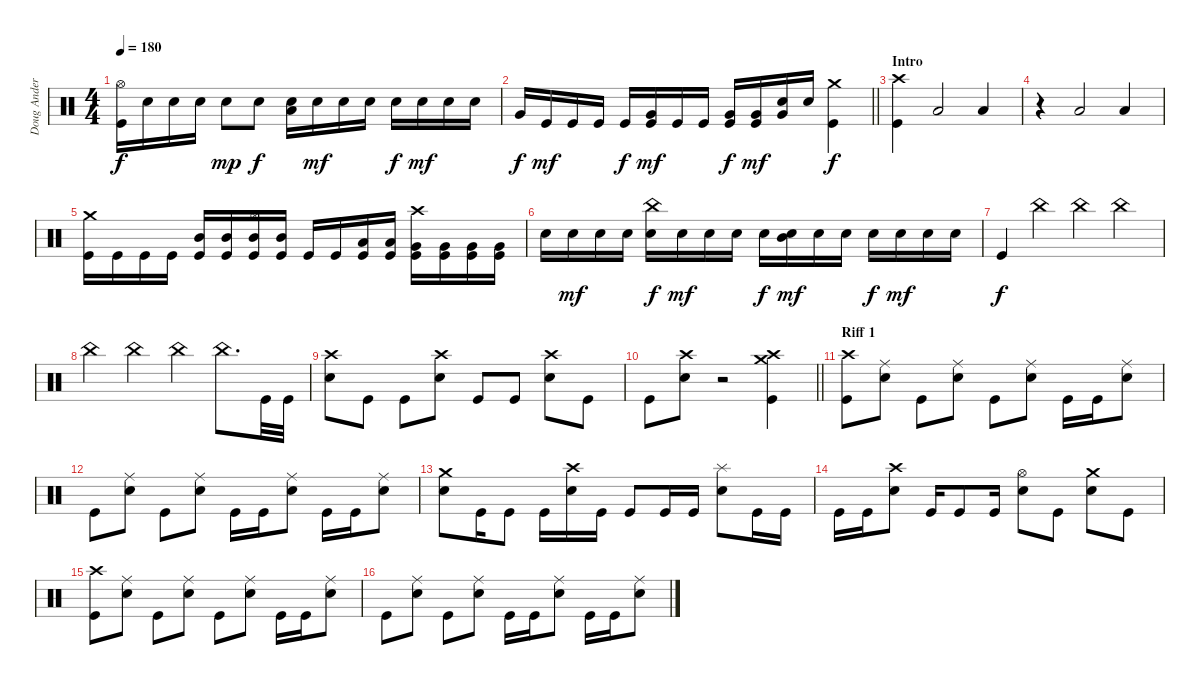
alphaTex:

\track ("Doug Anderson" "Doug Ander") {instrument percussion}
\staff {score}
\articulation defaults
\ts (4 4)
\tempo 180
\clef neutral
\ks c
("Kick (hit)" "Hi-Hat (open)").16{dy f} "Snare (hit) 2".16 "Snare (hit) 2".16 "Snare (hit) 2".16 "Snare (hit) 2".8{dy mp} "Snare (hit) 2".8{dy f} ("Low Tom (hit)" "Snare (hit) 2").16 "Snare (hit) 2".16{dy mf} "Snare (hit) 2".16 "Snare (hit) 2".16 "Snare (hit) 2".16{dy f} "Snare (hit) 2".16{dy mf} "Snare (hit) 2".16 "Snare (hit) 2".16 |
\barLineRight lightlight "Very Low Tom (hit)".16{dy f} "Kick (hit)".16{dy mf} "Kick (hit)".16 "Kick (hit)".16 "Kick (hit)".16{dy f}
("Kick (hit)" "Very Low Tom (hit)").16{dy mf} "Kick (hit)".16 "Kick (hit)".16 ("Very Low Tom (hit)" "Kick (hit)").16{dy f} ("Very Low Tom (hit)" "Kick (hit)").16{dy mf} ("Very Low Tom (hit)" "Snare (hit) 2").16 "Snare (hit) 2".16 ("Crash medium (hit)" "Kick (hit)").4{dy f} |
\section ("" "Intro")
("Kick (hit)" "Crash high (hit)").4 "Low Tom (hit)".2 "Low Tom (hit)".4 |
r.4 "Low Tom (hit)".2 "Low Tom (hit)".4 |
("Kick (hit)" "Crash medium (hit)").16 "Kick (hit)".16 "Kick (hit)".16 "Kick (hit)".16 ("Kick (hit)" "Mid Tom (hit)").16 ("Kick (hit)" "Mid Tom (hit)").16 ("Kick (hit)" "Mid Tom (hit)" "Hi-Hat (open)").16 ("Kick (hit)" "Mid Tom (hit)").16 "Kick (hit)".16 "Kick (hit)".16 ("Kick (hit)" "Low Tom (hit)").16 ("Kick (hit)" "Low Tom (hit)").16 ("Very Low Tom (hit)" "Kick (hit)" "Crash high (hit)").16 ("Very Low Tom (hit)" "Kick (hit)").16 ("Very Low Tom (hit)" "Kick (hit)").16 ("Very Low Tom (hit)" "Kick (hit)").16 |
"Snare (hit) 2".16 "Snare (hit) 2".16{dy mf} "Snare (hit) 2".16 "Snare (hit) 2".16 ("Snare (hit) 2" "China (hit)").16{dy f} "Snare (hit) 2".16{dy mf} "Snare (hit) 2".16 "Snare (hit) 2".16 "Snare (hit) 2".16{dy f} ("Snare (hit) 2" "Mid Tom (hit)").16{dy mf} "Snare (hit) 2".16 "Snare (hit) 2".16 "Snare (hit) 2".16{dy f} "Snare (hit) 2".16{dy mf} "Snare (hit) 2".16 "Snare (hit) 2".16 |
"Kick (hit)".4{dy f} "China (hit)".4 "China (hit)".4 "China (hit)".4 |
"China (hit)".4 "China (hit)".4 "China (hit)".4 "China (hit)".8{d} "Kick (hit)".32 "Kick (hit)".32 |
("Snare (hit) 2" "Crash high (hit)").8 "Kick (hit)".8 "Kick (hit)".8 ("Snare (hit) 2" "Crash high (hit)").8 "Kick (hit)".8 "Kick (hit)".8 ("Snare (hit) 2" "Crash high (hit)").8 "Kick (hit)".8 |
\barLineRight lightlight "Kick (hit)".8
("Snare (hit) 2" "Crash high (hit)").8 r.2 ("Kick (hit)" "Crash high (hit)" "Crash medium (hit)").4 |
\section ("" "Riff 1")
("Kick (hit)" "Crash high (hit)").8 ("Snare (hit) 2" "Ride (middle)").8 "Kick (hit)".8 ("Snare (hit) 2" "Ride (middle)").8 "Kick (hit)".8 ("Snare (hit) 2" "Ride (middle)").8 "Kick (hit)".16 "Kick (hit)".16 ("Snare (hit) 2" "Ride (middle)").8 |
"Kick (hit)".8 ("Snare (hit) 2" "Ride (middle)").8 "Kick (hit)".8 ("Snare (hit) 2" "Ride (middle)").8 "Kick (hit)".16 "Kick (hit)".16 ("Snare (hit) 2" "Ride (middle)").8 "Kick (hit)".16 "Kick (hit)".16 ("Snare (hit) 2" "Ride (middle)").8 |
("Snare (hit) 2" "Crash medium (hit)").8 "Kick (hit)".16 "Kick (hit)".8 "Kick (hit)".16 ("Snare (hit) 2" "Crash high (hit)").16 "Kick (hit)".16 "Kick (hit)".8 "Kick (hit)".16 "Kick (hit)".16 ("Snare (hit) 2" "Splash (hit)").8 "Kick (hit)".16 "Kick (hit)".16 |
"Kick (hit)".16 "Kick (hit)".16 ("Snare (hit) 2" "Crash high (hit)").8 "Kick (hit)".16 "Kick (hit)".8 "Kick (hit)".16 ("Snare (hit) 2" "Hi-Hat (open)").8 "Kick (hit)".8 ("Snare (hit) 2" "Crash medium (hit)").8 "Kick (hit)".8 |
("Kick (hit)" "Crash high (hit)").8 ("Snare (hit) 2" "Ride (middle)").8 "Kick (hit)".8 ("Snare (hit) 2" "Ride (middle)").8 "Kick (hit)".8 ("Snare (hit) 2" "Ride (middle)").8 "Kick (hit)".16 "Kick (hit)".16 ("Snare (hit) 2" "Ride (middle)").8 |
"Kick (hit)".8 ("Snare (hit) 2" "Ride (middle)").8 "Kick (hit)".8 ("Snare (hit) 2" "Ride (middle)").8 "Kick (hit)".16 "Kick (hit)".16 ("Snare (hit) 2" "Ride (middle)").8 "Kick (hit)".16 "Kick (hit)".16 ("Snare (hit) 2" "Ride (middle)").8
